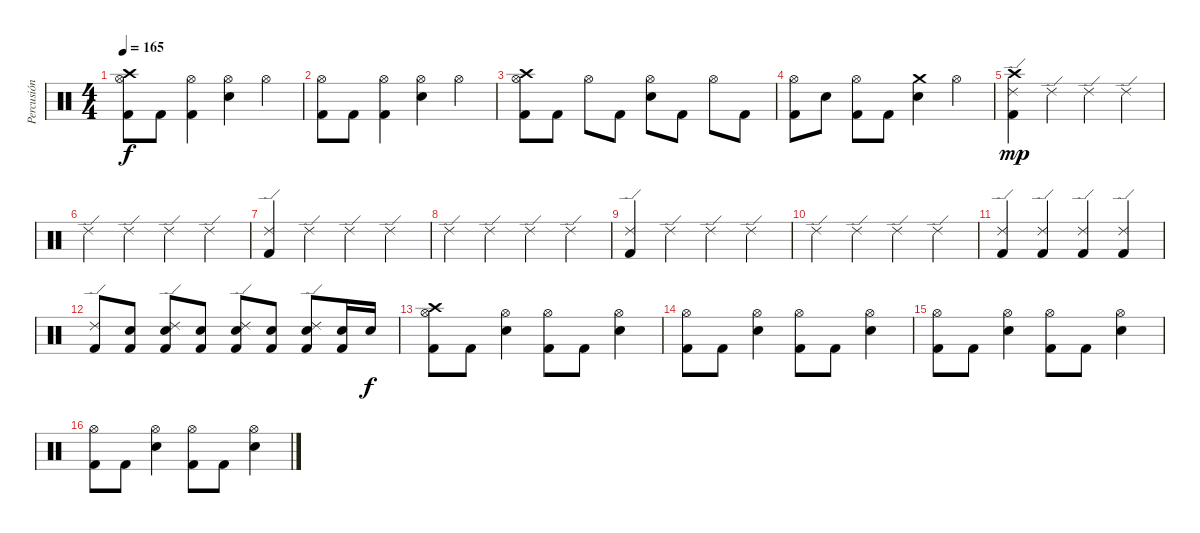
\track ("Percusión" "Percusión") {instrument percussion}
\staff {score}
\articulation defaults
\ts (4 4)
\tempo 165
\clef neutral
\ks c
("Crash high (hit)" "Hi-Hat (open)" "Kick (hit) 2").8{dy f} "Kick (hit) 2".8 ("Hi-Hat (open)" "Kick (hit) 2").4 ("Hi-Hat (open)" "Snare (hit) 2").4 "Hi-Hat (open)".4 |
("Hi-Hat (open)" "Kick (hit) 2").8 "Kick (hit) 2".8 ("Hi-Hat (open)" "Kick (hit) 2").4 ("Hi-Hat (open)" "Snare (hit) 2").4 "Hi-Hat (open)".4 |
("Crash high (hit)" "Hi-Hat (open)" "Kick (hit) 2").8 "Kick (hit) 2".8 "Hi-Hat (open)".8 "Kick (hit) 2".8 ("Hi-Hat (open)" "Snare (hit) 2").8 "Kick (hit) 2".8 "Hi-Hat (open)".8 "Kick (hit) 2".8 |
("Hi-Hat (open)" "Kick (hit) 2").8 "Snare (hit) 2".8 ("Hi-Hat (open)" "Kick (hit) 2").8 "Kick (hit) 2".8 ("Crash medium (hit)" "Snare (hit) 2").4 "Hi-Hat (open)".4 |
("Crash high (hit)" "Ride (edge) 2" "Kick (hit) 2").4{dy mp} "Ride (edge) 2".4 "Ride (edge) 2".4 "Ride (edge) 2".4 |
"Ride (edge) 2".4 "Ride (edge) 2".4 "Ride (edge) 2".4 "Ride (edge) 2".4 |
("Ride (edge) 2" "Kick (hit) 2").4 "Ride (edge) 2".4 "Ride (edge) 2".4 "Ride (edge) 2".4 |
"Ride (edge) 2".4 "Ride (edge) 2".4 "Ride (edge) 2".4 "Ride (edge) 2".4 |
("Ride (edge) 2" "Kick (hit) 2").4 "Ride (edge) 2".4 "Ride (edge) 2".4 "Ride (edge) 2".4 |
"Ride (edge) 2".4 "Ride (edge) 2".4 "Ride (edge) 2".4 "Ride (edge) 2".4 |
("Ride (edge) 2" "Kick (hit) 2").4 ("Ride (edge) 2" "Kick (hit) 2").4 ("Ride (edge) 2" "Kick (hit) 2").4 ("Ride (edge) 2" "Kick (hit) 2").4 |
("Ride (edge) 2" "Kick (hit) 2").8 ("Snare (hit) 2" "Kick (hit) 2").8 ("Ride (edge) 2" "Snare (hit) 2" "Kick (hit) 2").8 ("Snare (hit) 2" "Kick (hit) 2").8 ("Ride (edge) 2" "Snare (hit) 2" "Kick (hit) 2").8 ("Snare (hit) 2" "Kick (hit) 2").8 ("Ride (edge) 2" "Snare (hit) 2" "Kick (hit) 2").8 ("Snare (hit) 2" "Kick (hit) 2").16 "Snare (hit) 2".16{dy f} |
("Crash high (hit)" "Hi-Hat (open)" "Kick (hit) 2").8 "Kick (hit) 2".8 ("Hi-Hat (open)" "Snare (hit) 2").4 ("Hi-Hat (open)" "Kick (hit) 2").8 "Kick (hit) 2".8 ("Hi-Hat (open)" "Snare (hit) 2").4 |
("Hi-Hat (open)" "Kick (hit) 2").8 "Kick (hit) 2".8 ("Hi-Hat (open)" "Snare (hit) 2").4 ("Hi-Hat (open)" "Kick (hit) 2").8 "Kick (hit) 2".8 ("Hi-Hat (open)" "Snare (hit) 2").4 |
("Hi-Hat (open)" "Kick (hit) 2").8 "Kick (hit) 2".8 ("Hi-Hat (open)" "Snare (hit) 2").4 ("Hi-Hat (open)" "Kick (hit) 2").8 "Kick (hit) 2".8 ("Hi-Hat (open)" "Snare (hit) 2").4 |
("Hi-Hat (open)" "Kick (hit) 2").8 "Kick (hit) 2".8 ("Hi-Hat (open)" "Snare (hit) 2").4 ("Hi-Hat (open)" "Kick (hit) 2").8 "Kick (hit) 2".8 ("Hi-Hat (open)" "Snare (hit) 2").4
